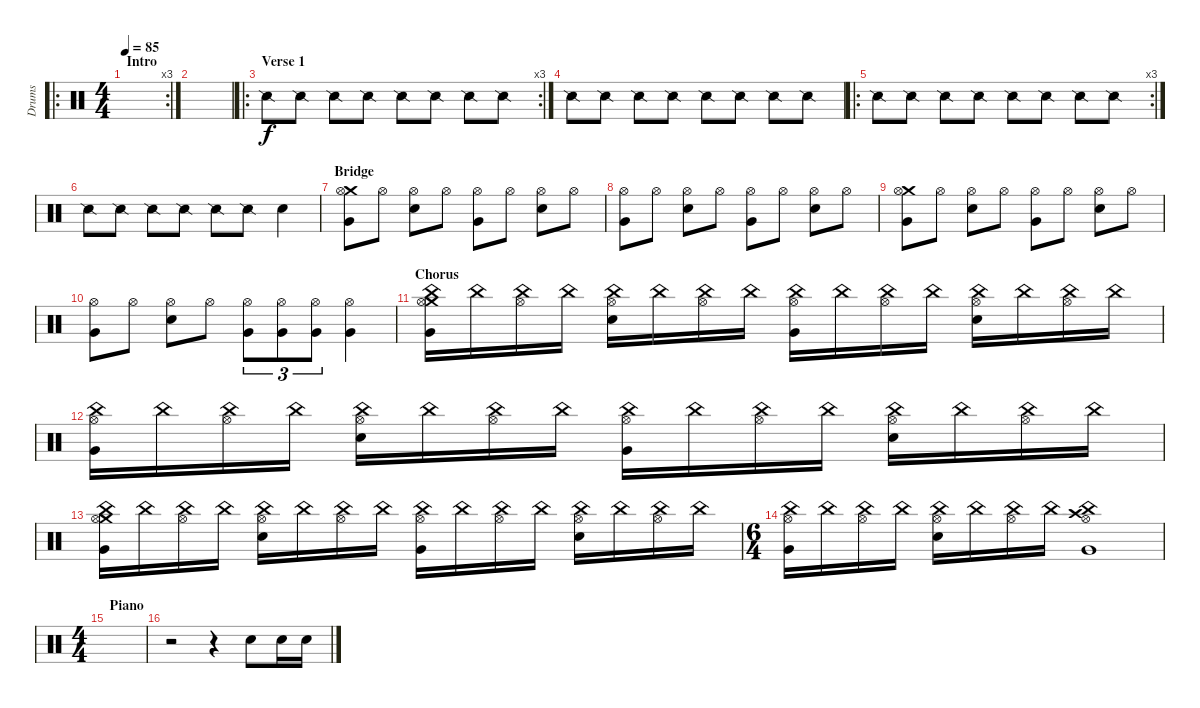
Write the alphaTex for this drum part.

\track ("Drums" "Drums") {instrument percussion}
\staff {score}
\articulation defaults
\ro
\rc 3
\ts (4 4)
\section ("" "Intro")
\tempo 85
\clef neutral
\ks c
|
|
\ro
\rc 3
\section ("" "Verse 1")
"Snare (side stick) 2".8 "Snare (side stick) 2".8 "Snare (side stick) 2".8 "Snare (side stick) 2".8 "Snare (side stick) 2".8 "Snare (side stick) 2".8 "Snare (side stick) 2".8 "Snare (side stick) 2".8 |
"Snare (side stick) 2".8 "Snare (side stick) 2".8 "Snare (side stick) 2".8 "Snare (side stick) 2".8 "Snare (side stick) 2".8 "Snare (side stick) 2".8 "Snare (side stick) 2".8 "Snare (side stick) 2".8 |
\ro
\rc 3 "Snare (side stick) 2".8 "Snare (side stick) 2".8 "Snare (side stick) 2".8 "Snare (side stick) 2".8 "Snare (side stick) 2".8 "Snare (side stick) 2".8 "Snare (side stick) 2".8 "Snare (side stick) 2".8
|
"Snare (side stick) 2".8 "Snare (side stick) 2".8 "Snare (side stick) 2".8 "Snare (side stick) 2".8 "Snare (side stick) 2".8 "Snare (side stick) 2".8 "Snare (hit) 2".4 |
\section ("" "Bridge")
("Crash medium (hit)" "Hi-Hat (open)" "Very Low Tom (hit)").8 "Hi-Hat (open)".8 ("Hi-Hat (open)" "Electric Snare (hit)").8 "Hi-Hat (open)".8 ("Hi-Hat (open)" "Very Low Tom (hit)").8 "Hi-Hat (open)".8 ("Hi-Hat (open)" "Electric Snare (hit)").8 "Hi-Hat (open)".8 |
("Hi-Hat (open)" "Very Low Tom (hit)").8 "Hi-Hat (open)".8 ("Hi-Hat (open)" "Electric Snare (hit)").8 "Hi-Hat (open)".8 ("Hi-Hat (open)" "Very Low Tom (hit)").8 "Hi-Hat (open)".8 ("Hi-Hat (open)" "Electric Snare (hit)").8 "Hi-Hat (open)".8 |
("Crash medium (hit)" "Hi-Hat (open)" "Very Low Tom (hit)").8 "Hi-Hat (open)".8 ("Hi-Hat (open)" "Electric Snare (hit)").8 "Hi-Hat (open)".8 ("Hi-Hat (open)" "Very Low Tom (hit)").8 "Hi-Hat (open)".8 ("Hi-Hat (open)" "Electric Snare (hit)").8 "Hi-Hat (open)".8 |
("Hi-Hat (open)" "Very Low Tom (hit)").8 "Hi-Hat (open)".8 ("Hi-Hat (open)" "Electric Snare (hit)").8 "Hi-Hat (open)".8 ("Hi-Hat (open)" "Very Low Tom (hit)").8{tu (3 2)} ("Hi-Hat (open)" "Very Low Tom (hit)").8{tu (3 2)} ("Hi-Hat (open)" "Very Low Tom (hit)").8{tu (3 2)} ("Hi-Hat (open)" "Very Low Tom (hit)").4 |
\section ("" "Chorus")
("Crash medium (hit)" "Hi-Hat (open)" "Very Low Tom (hit)" "China (hit)").16 "China (hit)".16 ("Hi-Hat (open)" "China (hit)").16 "China (hit)".16 ("Hi-Hat (open)" "Electric Snare (hit)" "China (hit)").16 "China (hit)".16 ("Hi-Hat (open)" "China (hit)").16 "China (hit)".16 ("Hi-Hat (open)" "Very Low Tom (hit)" "China (hit)").16 "China (hit)".16 ("Hi-Hat (open)" "China (hit)").16 "China (hit)".16 ("Hi-Hat (open)" "Electric Snare (hit)" "China (hit)").16 "China (hit)".16 ("Hi-Hat (open)" "China (hit)").16 "China (hit)".16 |
("Hi-Hat (open)" "Very Low Tom (hit)" "China (hit)").16 "China (hit)".16 ("Hi-Hat (open)" "China (hit)").16 "China (hit)".16 ("Hi-Hat (open)" "Electric Snare (hit)" "China (hit)").16 "China (hit)".16 ("Hi-Hat (open)" "China (hit)").16 "China (hit)".16 ("Hi-Hat (open)" "Very Low Tom (hit)" "China (hit)").16 "China (hit)".16 ("Hi-Hat (open)" "China (hit)").16 "China (hit)".16 ("Hi-Hat (open)" "Electric Snare (hit)" "China (hit)").16 "China (hit)".16 ("Hi-Hat (open)" "China (hit)").16 "China (hit)".16 |
("Crash medium (hit)" "Hi-Hat (open)" "Very Low Tom (hit)" "China (hit)").16 "China (hit)".16 ("Hi-Hat (open)" "China (hit)").16 "China (hit)".16 ("Hi-Hat (open)" "Electric Snare (hit)" "China (hit)").16 "China (hit)".16 ("Hi-Hat (open)" "China (hit)").16 "China (hit)".16 ("Hi-Hat (open)" "Very Low Tom (hit)" "China (hit)").16 "China (hit)".16 ("Hi-Hat (open)" "China (hit)").16 "China (hit)".16 ("Hi-Hat (open)" "Electric Snare (hit)" "China (hit)").16 "China (hit)".16 ("Hi-Hat (open)" "China (hit)").16 "China (hit)".16 |
\ts (6 4)
("Hi-Hat (open)" "Very Low Tom (hit)" "China (hit)").16 "China (hit)".16 ("Hi-Hat (open)" "China (hit)").16 "China (hit)".16 ("Hi-Hat (open)" "Electric Snare (hit)" "China (hit)").16 "China (hit)".16 ("Hi-Hat (open)" "China (hit)").16 "China (hit)".16 ("Crash high (hit)" "Hi-Hat (open)" "Very Low Tom (hit)" "China (hit)").1 |
\ts (4 4)
\section ("" "Piano")
|
r.2 r.4 "Snare (hit) 2".8 "Snare (hit) 2".16 "Snare (hit) 2".16
